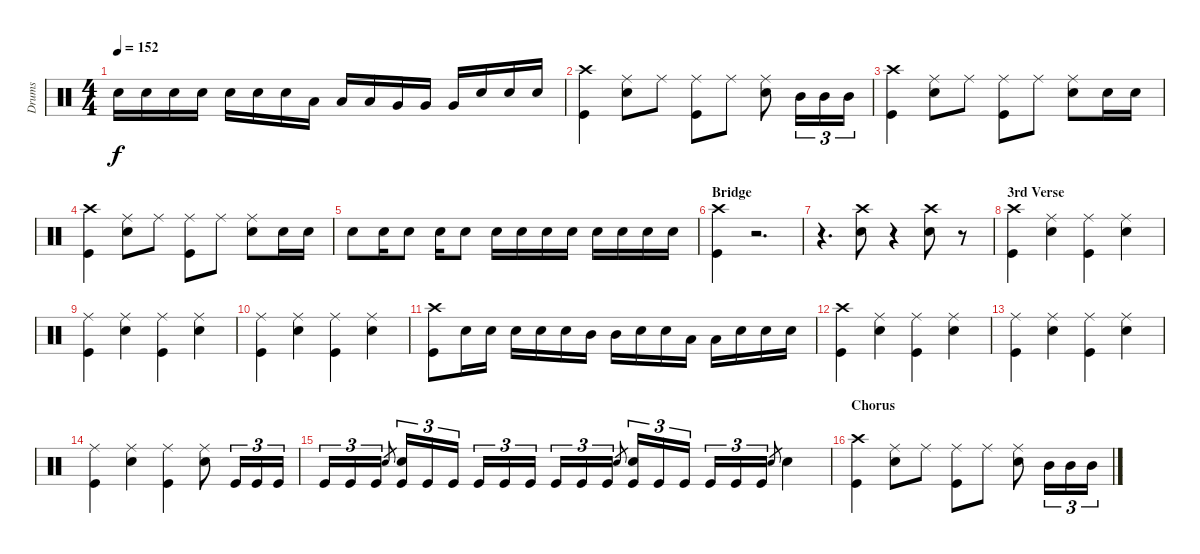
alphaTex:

\track ("Drums" "Drums") {instrument percussion}
\staff {score}
\articulation defaults
\ts (4 4)
\tempo 152
\clef neutral
\ks c "Snare (hit) 2".16{dy f} "Snare (hit) 2".16 "Snare (hit) 2".16 "Snare (hit) 2".16 "Snare (hit) 2".16 "Snare (hit) 2".16 "Snare (hit) 2".16 "Low Tom (hit)".16 "Low Tom (hit)".16 "Low Tom (hit)".16 "Very Low Tom (hit)".16 "Very Low Tom (hit)".16 "Very Low Tom (hit)".16 "Snare (hit) 2".16 "Snare (hit) 2".16 "Snare (hit) 2".16
|
("Crash high (hit)" "Kick (hit)").4 ("Ride (middle)" "Snare (hit) 2").8 "Ride (middle)".8 ("Ride (middle)" "Kick (hit)").8 "Ride (middle)".8 ("Ride (middle)" "Snare (hit) 2").8 "Mid Tom (hit)".16{tu (3 2)} "Mid Tom (hit)".16{tu (3 2)} "Mid Tom (hit)".16{tu (3 2)} |
("Crash high (hit)" "Kick (hit)").4 ("Ride (middle)" "Snare (hit) 2").8 "Ride (middle)".8 ("Ride (middle)" "Kick (hit)").8 "Ride (middle)".8 ("Ride (middle)" "Snare (hit) 2").8 "Snare (hit) 2".16 "Snare (hit) 2".16 |
("Crash high (hit)" "Kick (hit)").4 ("Ride (middle)" "Snare (hit) 2").8 "Ride (middle)".8 ("Ride (middle)" "Kick (hit)").8 "Ride (middle)".8 ("Ride (middle)" "Snare (hit) 2").8 "Snare (hit) 2".16 "Snare (hit) 2".16 |
"Snare (hit) 2".8 "Snare (hit) 2".16 "Snare (hit) 2".8 "Snare (hit) 2".16 "Snare (hit) 2".8 "Snare (hit) 2".16 "Snare (hit) 2".16 "Snare (hit) 2".16 "Snare (hit) 2".16 "Snare (hit) 2".16 "Snare (hit) 2".16 "Snare (hit) 2".16 "Snare (hit) 2".16 |
\section ("" "Bridge")
("Crash high (hit)" "Kick (hit)").4 r.2{d} |
r.4{d} ("Crash high (hit)" "Snare (hit) 2").8 r.4 ("Crash high (hit)" "Snare (hit) 2").8 r.8 |
\section ("" "3rd Verse")
("Crash high (hit)" "Kick (hit)").4 ("Ride (middle)" "Snare (hit) 2").4 ("Ride (middle)" "Kick (hit)").4 ("Ride (middle)" "Snare (hit) 2").4 |
("Ride (middle)" "Kick (hit)").4 ("Ride (middle)" "Snare (hit) 2").4 ("Ride (middle)" "Kick (hit)").4 ("Ride (middle)" "Snare (hit) 2").4 |
("Ride (middle)" "Kick (hit)").4 ("Ride (middle)" "Snare (hit) 2").4 ("Ride (middle)" "Kick (hit)").4 ("Ride (middle)" "Snare (hit) 2").4 |
("Crash high (hit)" "Kick (hit)").8 "Snare (hit) 2".16 "Snare (hit) 2".16 "Snare (hit) 2".16 "Snare (hit) 2".16 "Snare (hit) 2".16 "Mid Tom (hit)".16 "Mid Tom (hit)".16 "Snare (hit) 2".16 "Snare (hit) 2".16 "Low Tom (hit)".16 "Low Tom (hit)".16 "Snare (hit) 2".16 "Snare (hit) 2".16 "Snare (hit) 2".16 |
("Crash high (hit)" "Kick (hit)").4 ("Ride (middle)" "Snare (hit) 2").4 ("Ride (middle)" "Kick (hit)").4 ("Ride (middle)" "Snare (hit) 2").4 |
("Ride (middle)" "Kick (hit)").4 ("Ride (middle)" "Snare (hit) 2").4 ("Ride (middle)" "Kick (hit)").4 ("Ride (middle)" "Snare (hit) 2").4 |
("Ride (middle)" "Kick (hit)").4 ("Ride (middle)" "Snare (hit) 2").4 ("Ride (middle)" "Kick (hit)").4 ("Ride (middle)" "Snare (hit) 2").8 "Kick (hit)".16{tu (3 2)} "Kick (hit)".16{tu (3 2)} "Kick (hit)".16{tu (3 2)} |
"Kick (hit)".16{tu (3 2)} "Kick (hit)".16{tu (3 2)} "Kick (hit)".16{tu (3 2)} "Snare (hit) 2".8{gr} ("Snare (hit) 2" "Kick (hit)").16{tu (3 2)} "Kick (hit)".16{tu (3 2)} "Kick (hit)".16{tu (3 2)} "Kick (hit)".16{tu (3 2)} "Kick (hit)".16{tu (3 2)} "Kick (hit)".16{tu (3 2)} "Kick (hit)".16{tu (3 2)} "Kick (hit)".16{tu (3 2)} "Kick (hit)".16{tu (3 2)} "Snare (hit) 2".8{gr} ("Snare (hit) 2" "Kick (hit)").16{tu (3 2)} "Kick (hit)".16{tu (3 2)} "Kick (hit)".16{tu (3 2)} "Kick (hit)".16{tu (3 2)} "Kick (hit)".16{tu (3 2)} "Kick (hit)".16{tu (3 2)} "Snare (hit) 2".8{gr} "Snare (hit) 2".4 |
\section ("" "Chorus")
("Crash high (hit)" "Kick (hit)").4 ("Ride (middle)" "Snare (hit) 2").8 "Ride (middle)".8 ("Ride (middle)" "Kick (hit)").8 "Ride (middle)".8 ("Ride (middle)" "Snare (hit) 2").8 "Mid Tom (hit)".16{tu (3 2)} "Mid Tom (hit)".16{tu (3 2)} "Mid Tom (hit)".16{tu (3 2)}
